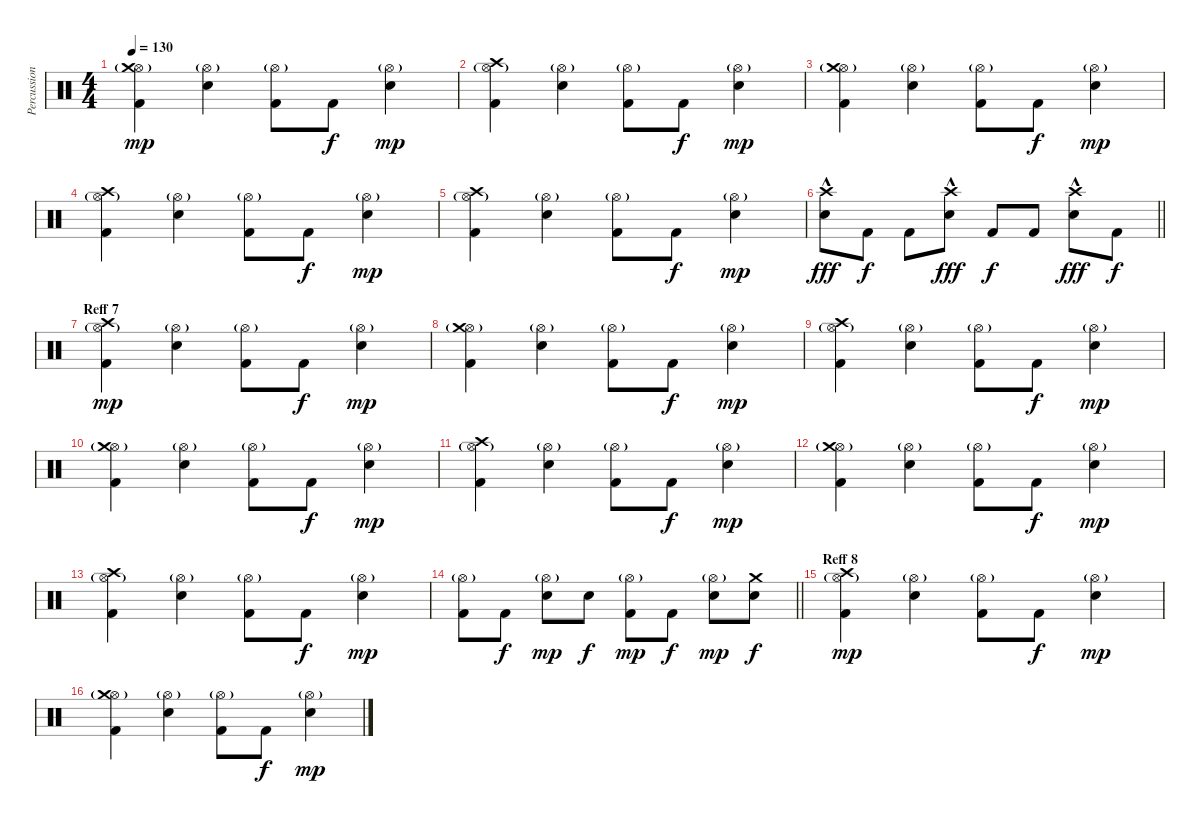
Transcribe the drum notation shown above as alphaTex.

\track ("Percussion 1" "Percussion") {instrument percussion}
\staff {score}
\articulation defaults
\ts (4 4)
\tempo 130
\clef neutral
\ks c
("Hi-Hat (open)"{g} "Crash medium (hit)" "Kick (hit) 2").4{dy mp} ("Hi-Hat (open)"{g} "Electric Snare (hit)").4 ("Hi-Hat (open)"{g} "Kick (hit) 2").8 "Kick (hit) 2".8{dy f} ("Hi-Hat (open)"{g} "Electric Snare (hit)").4{dy mp} |
("Hi-Hat (open)"{g} "Crash high (hit)" "Kick (hit) 2").4 ("Hi-Hat (open)"{g} "Electric Snare (hit)").4 ("Hi-Hat (open)"{g} "Kick (hit) 2").8 "Kick (hit) 2".8{dy f} ("Hi-Hat (open)"{g} "Electric Snare (hit)").4{dy mp} |
("Hi-Hat (open)"{g} "Crash medium (hit)" "Kick (hit) 2").4 ("Hi-Hat (open)"{g} "Electric Snare (hit)").4 ("Hi-Hat (open)"{g} "Kick (hit) 2").8 "Kick (hit) 2".8{dy f} ("Hi-Hat (open)"{g} "Electric Snare (hit)").4{dy mp} |
("Hi-Hat (open)"{g} "Crash high (hit)" "Kick (hit) 2").4 ("Hi-Hat (open)"{g} "Electric Snare (hit)").4 ("Hi-Hat (open)"{g} "Kick (hit) 2").8 "Kick (hit) 2".8{dy f} ("Hi-Hat (open)"{g} "Electric Snare (hit)").4{dy mp} |
("Hi-Hat (open)"{g} "Crash high (hit)" "Kick (hit) 2").4 ("Hi-Hat (open)"{g} "Electric Snare (hit)").4 ("Hi-Hat (open)"{g} "Kick (hit) 2").8 "Kick (hit) 2".8{dy f} ("Hi-Hat (open)"{g} "Electric Snare (hit)").4{dy mp} |
\barLineRight lightlight
("Crash high (hit)"{hac} "Electric Snare (hit)"{hac}).8{dy fff} "Kick (hit) 2".8{dy f} "Kick (hit) 2".8 ("Crash high (hit)"{hac} "Electric Snare (hit)"{hac}).8{dy fff} "Kick (hit) 2".8{dy f} "Kick (hit) 2".8 ("Crash high (hit)"{hac} "Electric Snare (hit)"{hac}).8{dy fff} "Kick (hit) 2".8{dy f} |
\section ("" "Reff 7")
("Hi-Hat (open)"{g} "Crash high (hit)" "Kick (hit) 2").4{dy mp} ("Hi-Hat (open)"{g} "Electric Snare (hit)").4 ("Hi-Hat (open)"{g} "Kick (hit) 2").8 "Kick (hit) 2".8{dy f} ("Hi-Hat (open)"{g} "Electric Snare (hit)").4{dy mp} |
("Hi-Hat (open)"{g} "Crash medium (hit)" "Kick (hit) 2").4 ("Hi-Hat (open)"{g} "Electric Snare (hit)").4 ("Hi-Hat (open)"{g} "Kick (hit) 2").8 "Kick (hit) 2".8{dy f} ("Hi-Hat (open)"{g} "Electric Snare (hit)").4{dy mp} |
("Hi-Hat (open)"{g} "Crash high (hit)" "Kick (hit) 2").4 ("Hi-Hat (open)"{g} "Electric Snare (hit)").4 ("Hi-Hat (open)"{g} "Kick (hit) 2").8 "Kick (hit) 2".8{dy f} ("Hi-Hat (open)"{g} "Electric Snare (hit)").4{dy mp} |
("Hi-Hat (open)"{g} "Crash medium (hit)" "Kick (hit) 2").4 ("Hi-Hat (open)"{g} "Electric Snare (hit)").4 ("Hi-Hat (open)"{g} "Kick (hit) 2").8 "Kick (hit) 2".8{dy f} ("Hi-Hat (open)"{g} "Electric Snare (hit)").4{dy mp} |
("Hi-Hat (open)"{g} "Crash high (hit)" "Kick (hit) 2").4 ("Hi-Hat (open)"{g} "Electric Snare (hit)").4 ("Hi-Hat (open)"{g} "Kick (hit) 2").8 "Kick (hit) 2".8{dy f} ("Hi-Hat (open)"{g} "Electric Snare (hit)").4{dy mp} |
("Hi-Hat (open)"{g} "Crash medium (hit)" "Kick (hit) 2").4 ("Hi-Hat (open)"{g} "Electric Snare (hit)").4 ("Hi-Hat (open)"{g} "Kick (hit) 2").8 "Kick (hit) 2".8{dy f} ("Hi-Hat (open)"{g} "Electric Snare (hit)").4{dy mp} |
("Hi-Hat (open)"{g} "Crash high (hit)" "Kick (hit) 2").4 ("Hi-Hat (open)"{g} "Electric Snare (hit)").4 ("Hi-Hat (open)"{g} "Kick (hit) 2").8 "Kick (hit) 2".8{dy f} ("Hi-Hat (open)"{g} "Electric Snare (hit)").4{dy mp} |
\barLineRight lightlight
("Hi-Hat (open)"{g} "Kick (hit) 2").8 "Kick (hit) 2".8{dy f} ("Hi-Hat (open)"{g} "Electric Snare (hit)").8{dy mp} "Electric Snare (hit)".8{dy f} ("Hi-Hat (open)"{g} "Kick (hit) 2").8{dy mp} "Kick (hit) 2".8{dy f} ("Hi-Hat (open)"{g} "Electric Snare (hit)").8{dy mp} ("Electric Snare (hit)" "Crash medium (hit)").8{dy f} |
\section ("" "Reff 8")
("Hi-Hat (open)"{g} "Crash high (hit)" "Kick (hit) 2").4{dy mp} ("Hi-Hat (open)"{g} "Electric Snare (hit)").4 ("Hi-Hat (open)"{g} "Kick (hit) 2").8 "Kick (hit) 2".8{dy f} ("Hi-Hat (open)"{g} "Electric Snare (hit)").4{dy mp} |
("Hi-Hat (open)"{g} "Crash medium (hit)" "Kick (hit) 2").4 ("Hi-Hat (open)"{g} "Electric Snare (hit)").4 ("Hi-Hat (open)"{g} "Kick (hit) 2").8 "Kick (hit) 2".8{dy f} ("Hi-Hat (open)"{g} "Electric Snare (hit)").4{dy mp}
